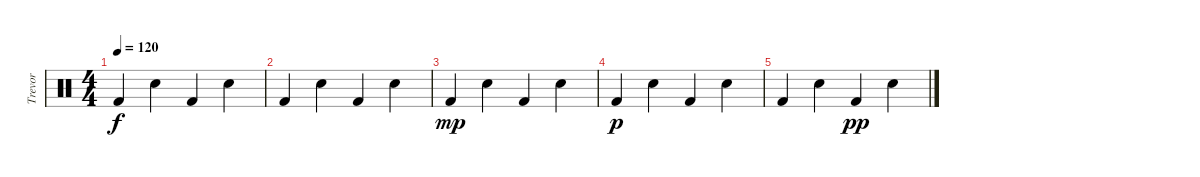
\track ("Trevor" "Trevor") {instrument percussion}
\staff {score}
\articulation defaults
\ts (4 4)
\tempo 120
\clef neutral
\ks c "Kick (hit) 2".4{dy f} "Electric Snare (hit)".4 "Kick (hit) 2".4 "Electric Snare (hit)".4
|
"Kick (hit) 2".4 "Electric Snare (hit)".4 "Kick (hit) 2".4 "Electric Snare (hit)".4 |
"Kick (hit) 2".4{dy mp} "Electric Snare (hit)".4 "Kick (hit) 2".4 "Electric Snare (hit)".4 |
"Kick (hit) 2".4{dy p} "Electric Snare (hit)".4 "Kick (hit) 2".4 "Electric Snare (hit)".4 |
"Kick (hit) 2".4 "Electric Snare (hit)".4 "Kick (hit) 2".4{dy pp} "Electric Snare (hit)".4
